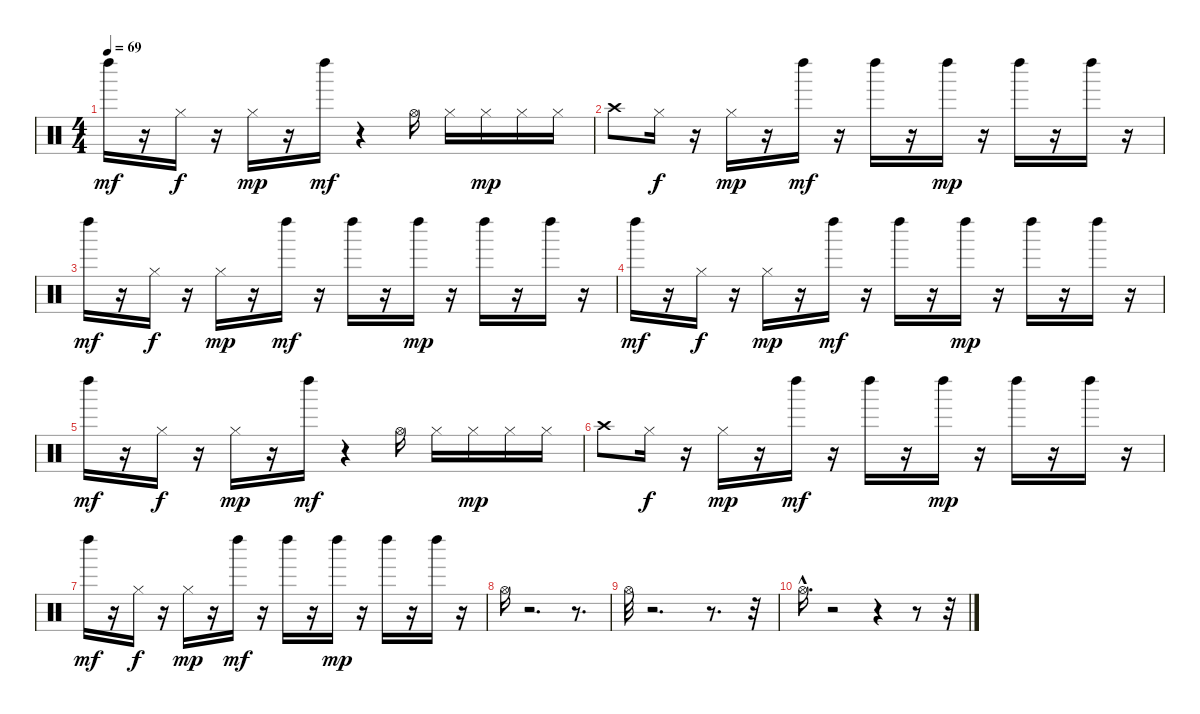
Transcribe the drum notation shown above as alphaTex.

\track "" {instrument percussion}
\staff {score}
\articulation defaults
\ts (4 4)
\tempo 69
\clef neutral
\ks c "Left Maraca (hit)".16{dy mf}
r.16 "Hi-Hat (closed)".16{dy f} r.16 "Hi-Hat (closed)".16{dy mp} r.16 "Left Maraca (hit)".16{dy mf} r.4 "Hi-Hat (open)".16 "Hi-Hat (closed)".16 "Hi-Hat (closed)".16{dy mp} "Hi-Hat (closed)".16 "Hi-Hat (closed)".16 |
"Crash high (hit)".8 "Hi-Hat (closed)".16{dy f} r.16 "Hi-Hat (closed)".16{dy mp} r.16 "Left Maraca (hit)".16{dy mf} r.16 "Left Maraca (hit)".16 r.16 "Left Maraca (hit)".16{dy mp} r.16 "Left Maraca (hit)".16 r.16 "Left Maraca (hit)".16 r.16 |
"Left Maraca (hit)".16{dy mf} r.16 "Hi-Hat (closed)".16{dy f} r.16 "Hi-Hat (closed)".16{dy mp} r.16 "Left Maraca (hit)".16{dy mf} r.16 "Left Maraca (hit)".16 r.16 "Left Maraca (hit)".16{dy mp} r.16 "Left Maraca (hit)".16 r.16 "Left Maraca (hit)".16 r.16 |
"Left Maraca (hit)".16{dy mf} r.16 "Hi-Hat (closed)".16{dy f} r.16 "Hi-Hat (closed)".16{dy mp} r.16 "Left Maraca (hit)".16{dy mf} r.16 "Left Maraca (hit)".16 r.16 "Left Maraca (hit)".16{dy mp} r.16 "Left Maraca (hit)".16 r.16 "Left Maraca (hit)".16 r.16 |
"Left Maraca (hit)".16{dy mf} r.16 "Hi-Hat (closed)".16{dy f} r.16 "Hi-Hat (closed)".16{dy mp} r.16 "Left Maraca (hit)".16{dy mf} r.4 "Hi-Hat (open)".16 "Hi-Hat (closed)".16 "Hi-Hat (closed)".16{dy mp} "Hi-Hat (closed)".16 "Hi-Hat (closed)".16 |
"Crash high (hit)".8 "Hi-Hat (closed)".16{dy f} r.16 "Hi-Hat (closed)".16{dy mp} r.16 "Left Maraca (hit)".16{dy mf} r.16 "Left Maraca (hit)".16 r.16 "Left Maraca (hit)".16{dy mp} r.16 "Left Maraca (hit)".16 r.16 "Left Maraca (hit)".16 r.16 |
"Left Maraca (hit)".16{dy mf} r.16 "Hi-Hat (closed)".16{dy f} r.16 "Hi-Hat (closed)".16{dy mp} r.16 "Left Maraca (hit)".16{dy mf} r.16 "Left Maraca (hit)".16 r.16 "Left Maraca (hit)".16{dy mp} r.16 "Left Maraca (hit)".16 r.16 "Left Maraca (hit)".16 r.16 |
"Hi-Hat (open)".16 r.2{d} r.8{d} |
"Hi-Hat (open)".32 r.2{d} r.8{d} r.32 |
"Hi-Hat (open)"{hac}.16{d} r.2 r.4 r.8 r.32
